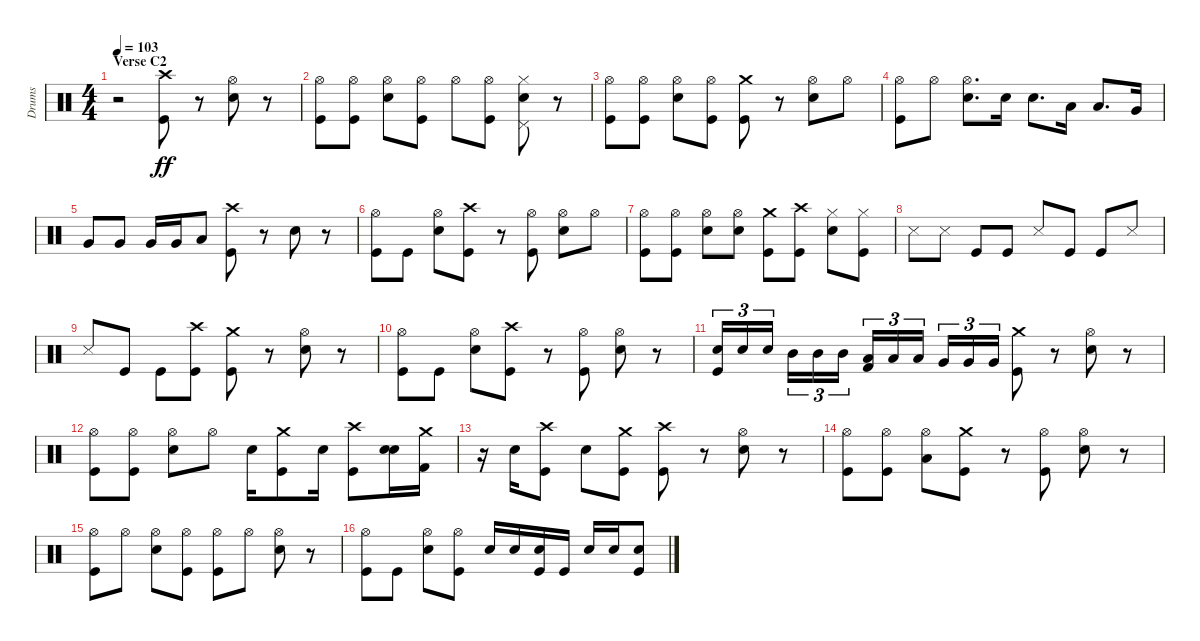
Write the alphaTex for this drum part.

\track ("Drums" "Drums") {instrument percussion}
\staff {score}
\articulation defaults
\ts (4 4)
\section ("" "Verse C2")
\tempo 103
\clef neutral
\ks c
r.2{dy ff} ("Crash high (hit)" "Kick (hit)").8 r.8 ("Hi-Hat (open)" "Electric Snare (hit)").8 r.8 |
("Hi-Hat (open)" "Kick (hit)").8 ("Hi-Hat (open)" "Kick (hit)").8 ("Hi-Hat (open)" "Electric Snare (hit)").8 ("Hi-Hat (open)" "Kick (hit)").8 "Hi-Hat (open)".8 ("Hi-Hat (open)" "Kick (hit)").8 ("Pedal Hi-Hat (hit)" "Hi-Hat (closed)" "Electric Snare (hit)").8 r.8 |
("Hi-Hat (open)" "Kick (hit)").8 ("Hi-Hat (open)" "Kick (hit)").8 ("Hi-Hat (open)" "Electric Snare (hit)").8 ("Hi-Hat (open)" "Kick (hit)").8 ("Crash medium (hit)" "Kick (hit)").8 r.8 ("Hi-Hat (open)" "Electric Snare (hit)").8 "Hi-Hat (open)".8 |
("Hi-Hat (open)" "Kick (hit)").8 "Hi-Hat (open)".8 ("Hi-Hat (open)" "Electric Snare (hit)").8{d} "Electric Snare (hit)".16 "Electric Snare (hit)".8{d} "Low Tom (hit)".16 "Low Tom (hit)".8{d} "Very Low Tom (hit)".16 |
"Very Low Tom (hit)".8 "Very Low Tom (hit)".8 "Very Low Tom (hit)".16 "Very Low Tom (hit)".16 "Low Floor Tom (hit)".8 ("Crash high (hit)" "Kick (hit)").8 r.8 "Electric Snare (hit)".8 r.8 |
("Hi-Hat (open)" "Kick (hit)").8 "Kick (hit)".8 ("Hi-Hat (open)" "Electric Snare (hit)").8 ("Crash high (hit)" "Kick (hit)").8 r.8 ("Hi-Hat (open)" "Kick (hit)").8 ("Hi-Hat (open)" "Electric Snare (hit)").8 "Hi-Hat (open)".8 |
("Hi-Hat (open)" "Kick (hit)").8 ("Hi-Hat (open)" "Kick (hit)").8 ("Hi-Hat (open)" "Electric Snare (hit)").8 ("Hi-Hat (open)" "Electric Snare (hit)").8 ("Crash medium (hit)" "Kick (hit)").8 ("Crash high (hit)" "Kick (hit)").8 ("Hi-Hat (closed)" "Electric Snare (hit)").8 ("Hi-Hat (closed)" "Kick (hit)").8 |
"Snare (side stick) 3".8 "Snare (side stick) 3".8 "Kick (hit)".8 "Kick (hit)".8 "Snare (side stick) 3".8 "Kick (hit)".8 "Kick (hit)".8 "Snare (side stick) 3".8 |
"Snare (side stick) 3".8 "Kick (hit)".8 "Kick (hit)".8 ("Crash high (hit)" "Kick (hit)").8 ("Crash medium (hit)" "Kick (hit)").8 r.8 ("Hi-Hat (open)" "Electric Snare (hit)").8 r.8 |
("Hi-Hat (open)" "Kick (hit)").8 "Kick (hit)".8 ("Hi-Hat (open)" "Electric Snare (hit)").8 ("Crash high (hit)" "Kick (hit)").8 r.8 ("Hi-Hat (open)" "Kick (hit)").8 ("Hi-Hat (open)" "Electric Snare (hit)").8 r.8 |
("Electric Snare (hit)" "Kick (hit)").16{tu (3 2)} "Electric Snare (hit)".16{tu (3 2)} "Electric Snare (hit)".16{tu (3 2) beam splitsecondary} "Mid Tom (hit)".16{tu (3 2)} "Mid Tom (hit)".16{tu (3 2)} "Mid Tom (hit)".16{tu (3 2)} ("Low Tom (hit)" "Kick (hit) 2").16{tu (3 2)} "Low Tom (hit)".16{tu (3 2)} "Low Tom (hit)".16{tu (3 2) beam splitsecondary} "Very Low Tom (hit)".16{tu (3 2)} "Very Low Tom (hit)".16{tu (3 2)} "Very Low Tom (hit)".16{tu (3 2)} ("Crash medium (hit)" "Kick (hit)").8 r.8 ("Hi-Hat (open)" "Electric Snare (hit)").8 r.8 |
("Hi-Hat (open)" "Kick (hit)").8 ("Hi-Hat (open)" "Kick (hit)").8 ("Hi-Hat (open)" "Electric Snare (hit)").8 "Hi-Hat (open)".8 "Electric Snare (hit)".16 ("Crash medium (hit)" "Kick (hit)").8 "Electric Snare (hit)".16 ("Crash high (hit)" "Kick (hit)").8 ("Electric Snare (hit)" "Electric Snare (hit)").16 ("Crash medium (hit)" "Kick (hit) 2").16 |
r.16 "Electric Snare (hit)".16 ("Crash high (hit)" "Kick (hit)").8 "Electric Snare (hit)".8 ("Crash medium (hit)" "Kick (hit)").8 ("Crash high (hit)" "Kick (hit)").8 r.8 ("Hi-Hat (open)" "Electric Snare (hit)").8 r.8 |
("Hi-Hat (open)" "Kick (hit)").8 ("Hi-Hat (open)" "Kick (hit)").8 ("Hi-Hat (open)" "Low Floor Tom (hit)").8 ("Crash medium (hit)" "Kick (hit)").8 r.8 ("Hi-Hat (open)" "Kick (hit)").8 ("Hi-Hat (open)" "Electric Snare (hit)").8 r.8 |
("Hi-Hat (open)" "Kick (hit)").8 "Hi-Hat (open)".8 ("Hi-Hat (open)" "Electric Snare (hit)").8 ("Hi-Hat (open)" "Kick (hit)").8 ("Hi-Hat (open)" "Kick (hit)").8 "Hi-Hat (open)".8 ("Hi-Hat (open)" "Electric Snare (hit)").8 r.8 |
("Hi-Hat (open)" "Kick (hit)").8 "Kick (hit)".8 ("Hi-Hat (open)" "Electric Snare (hit)").8 ("Hi-Hat (open)" "Kick (hit)").8 "Electric Snare (hit)".16 "Electric Snare (hit)".16 ("Electric Snare (hit)" "Kick (hit)").16 "Kick (hit)".16 "Electric Snare (hit)".16 "Electric Snare (hit)".16 ("Electric Snare (hit)" "Kick (hit)").8
